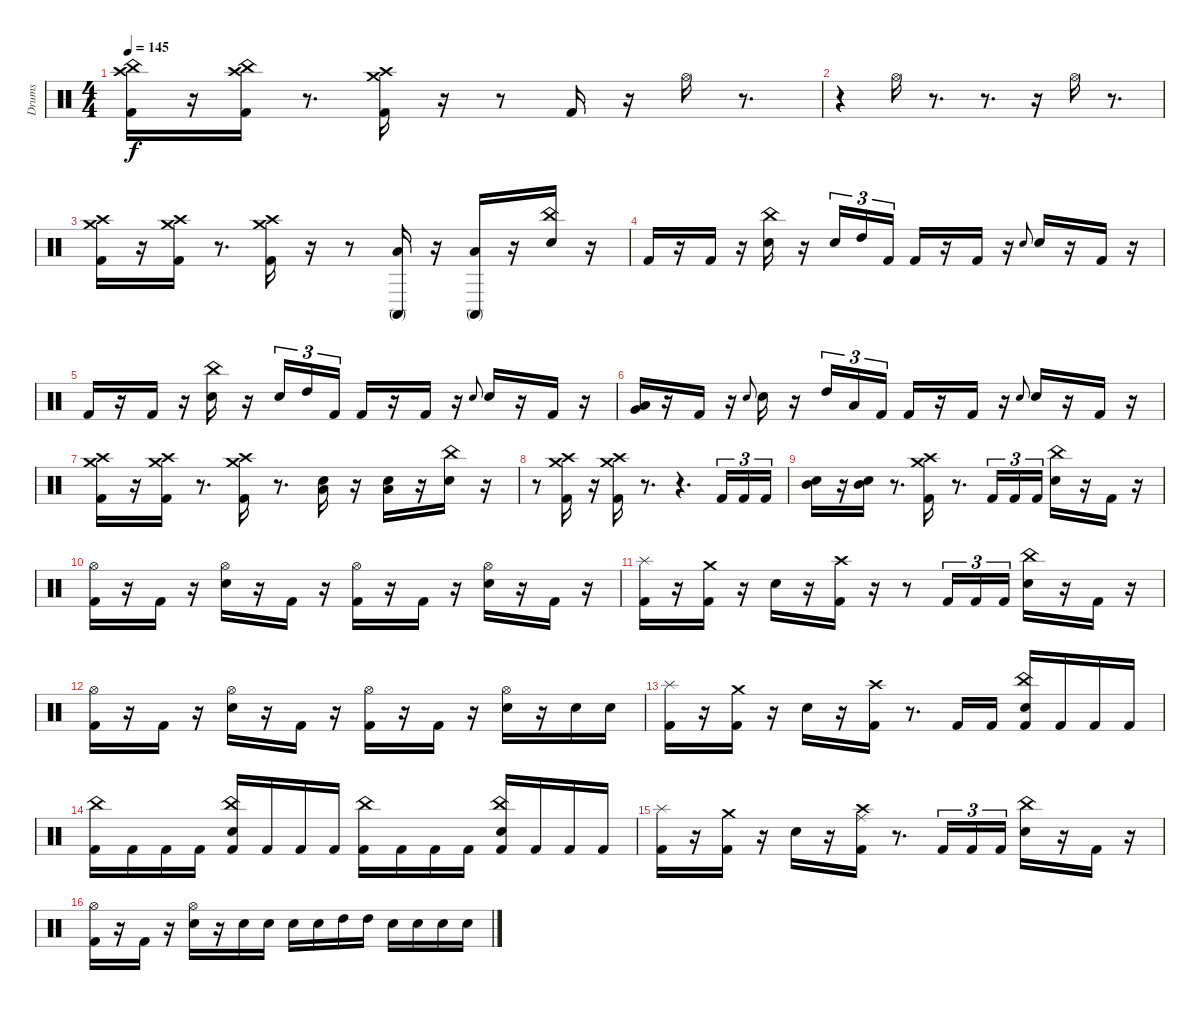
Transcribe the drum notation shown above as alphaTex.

\track ("Drums" "Drums") {instrument percussion}
\staff {score}
\articulation defaults
\ts (4 4)
\tempo 145
\clef neutral
\ks c
("Kick (hit) 2" "Crash high (hit)" "China (hit)").16{dy f} r.16 ("Kick (hit) 2" "Crash high (hit)" "China (hit)").16 r.8{d} ("Kick (hit) 2" "Crash high (hit)" "Crash medium (hit)").16 r.16 r.8 "Kick (hit) 2".16 r.16 "Hi-Hat (open)".16 r.8{d} |
r.4 "Hi-Hat (open)".16 r.8{d} r.8{d} r.16 "Hi-Hat (open)".16 r.8{d} |
("Kick (hit) 2" "Crash high (hit)" "Crash medium (hit)").16 r.16 ("Kick (hit) 2" "Crash high (hit)" "Crash medium (hit)").16 r.8{d} ("Kick (hit) 2" "Crash high (hit)" "Crash medium (hit)").16 r.16 r.8 ("Low Floor Tom (hit)" "Conga high (mute)").16 r.16 ("Low Floor Tom (hit)" "Conga high (mute)").16 r.16 ("Snare (hit) 2" "China (hit)").16 r.16 |
"Kick (hit) 2".16 r.16 "Kick (hit) 2".16 r.16 ("Snare (hit) 2" "China (hit)").16 r.16 "Snare (hit) 2".16{tu (3 2)} "High Tom (hit)".16{tu (3 2)} "Kick (hit) 2".16{tu (3 2)} "Kick (hit) 2".16 r.16 "Kick (hit) 2".16 r.16 "Snare (hit) 2".8{gr onbeat} "Snare (hit) 2".16 r.16 "Kick (hit) 2".16 r.16 |
"Kick (hit) 2".16 r.16 "Kick (hit) 2".16 r.16 ("Snare (hit) 2" "China (hit)").16 r.16 "Snare (hit) 2".16{tu (3 2)} "High Tom (hit)".16{tu (3 2)} "Kick (hit) 2".16{tu (3 2)} "Kick (hit) 2".16 r.16 "Kick (hit) 2".16 r.16 "Snare (hit) 2".8{gr onbeat} "Snare (hit) 2".16 r.16 "Kick (hit) 2".16 r.16 |
("Low Tom (hit)" "Very Low Tom (hit)").16 r.16 "Kick (hit) 2".16 r.16 "Snare (hit) 2".8{gr onbeat} "Snare (hit) 2".16 r.16 "High Tom (hit)".16{tu (3 2)} "Low Floor Tom (hit)".16{tu (3 2)} "Kick (hit) 2".16{tu (3 2)} "Kick (hit) 2".16 r.16 "Kick (hit) 2".16 r.16 "Snare (hit) 2".8{gr onbeat} "Snare (hit) 2".16 r.16 "Kick (hit) 2".16 r.16 |
("Kick (hit) 2" "Crash high (hit)" "Crash medium (hit)").16 r.16 ("Kick (hit) 2" "Crash high (hit)" "Crash medium (hit)").16 r.8{d} ("Kick (hit) 2" "Crash high (hit)" "Crash medium (hit)").16 r.8{d} ("Snare (hit) 2" "Low Tom (hit)").16 r.16 ("Snare (hit) 2" "Low Tom (hit)").16 r.16 ("Snare (hit) 2" "China (hit)").16 r.16 |
r.8 ("Kick (hit) 2" "Crash high (hit)" "Crash medium (hit)").16 r.16 ("Kick (hit) 2" "Crash high (hit)" "Crash medium (hit)").16 r.8{d} r.4{d} "Kick (hit) 2".16{tu (3 2)} "Kick (hit) 2".16{tu (3 2)} "Kick (hit) 2".16{tu (3 2)} |
("Snare (hit) 2" "Mid Tom (hit)").16 r.16 ("Snare (hit) 2" "Mid Tom (hit)").16 r.8{d} ("Kick (hit) 2" "Crash high (hit)" "Crash medium (hit)").16 r.8{d} "Kick (hit) 2".16{tu (3 2)} "Kick (hit) 2".16{tu (3 2)} "Kick (hit) 2".16{tu (3 2)} ("Snare (hit) 2" "China (hit)").16 r.16 "Kick (hit) 2".16 r.16 |
("Kick (hit) 2" "Hi-Hat (open)").16 r.16 "Kick (hit) 2".16 r.16 ("Snare (hit) 2" "Hi-Hat (open)").16 r.16 "Kick (hit) 2".16 r.16 ("Kick (hit) 2" "Hi-Hat (open)").16 r.16 "Kick (hit) 2".16 r.16 ("Snare (hit) 2" "Hi-Hat (open)").16 r.16 "Kick (hit) 2".16 r.16 |
("Kick (hit) 2" "Splash (hit)").16 r.16 ("Kick (hit) 2" "Crash medium (hit)").16 r.16 "Snare (hit) 2".16 r.16 ("Kick (hit) 2" "Crash high (hit)").16 r.16 r.8 "Kick (hit) 2".16{tu (3 2)} "Kick (hit) 2".16{tu (3 2)} "Kick (hit) 2".16{tu (3 2)} ("Snare (hit) 2" "China (hit)").16 r.16 "Kick (hit) 2".16 r.16 |
("Kick (hit) 2" "Hi-Hat (open)").16 r.16 "Kick (hit) 2".16 r.16 ("Snare (hit) 2" "Hi-Hat (open)").16 r.16 "Kick (hit) 2".16 r.16 ("Kick (hit) 2" "Hi-Hat (open)").16 r.16 "Kick (hit) 2".16 r.16 ("Snare (hit) 2" "Hi-Hat (open)").16 r.16 "Snare (hit) 2".16 "Snare (hit) 2".16 |
("Kick (hit) 2" "Splash (hit)").16 r.16 ("Kick (hit) 2" "Crash medium (hit)").16 r.16 "Snare (hit) 2".16 r.16 ("Kick (hit) 2" "Crash high (hit)").16 r.8{d} "Kick (hit) 2".16 "Kick (hit) 2".16 ("Kick (hit) 2" "Snare (hit) 2" "China (hit)").16 "Kick (hit) 2".16 "Kick (hit) 2".16 "Kick (hit) 2".16 |
("Kick (hit) 2" "China (hit)").16 "Kick (hit) 2".16 "Kick (hit) 2".16 "Kick (hit) 2".16 ("Kick (hit) 2" "Snare (hit) 2" "China (hit)").16 "Kick (hit) 2".16 "Kick (hit) 2".16 "Kick (hit) 2".16 ("Kick (hit) 2" "China (hit)").16 "Kick (hit) 2".16 "Kick (hit) 2".16 "Kick (hit) 2".16 ("Kick (hit) 2" "Snare (hit) 2" "China (hit)").16 "Kick (hit) 2".16 "Kick (hit) 2".16 "Kick (hit) 2".16 |
("Kick (hit) 2" "Splash (hit)").16 r.16 ("Kick (hit) 2" "Crash medium (hit)").16 r.16 "Snare (hit) 2".16 r.16 ("Kick (hit) 2" "Crash high (hit)" "Ride (middle)").16 r.8{d} "Kick (hit) 2".16{tu (3 2)} "Kick (hit) 2".16{tu (3 2)} "Kick (hit) 2".16{tu (3 2)} ("Snare (hit) 2" "China (hit)").16 r.16 "Kick (hit) 2".16 r.16 |
("Kick (hit) 2" "Hi-Hat (open)").16 r.16 "Kick (hit) 2".16 r.16 ("Snare (hit) 2" "Hi-Hat (open)").16 r.16 "Snare (hit) 2".16 "Snare (hit) 2".16 "Snare (hit) 2".16 "Snare (hit) 2".16 "High Tom (hit)".16 "High Tom (hit)".16 "Snare (hit) 2".16 "Snare (hit) 2".16 "Snare (hit) 2".16 "Snare (hit) 2".16
